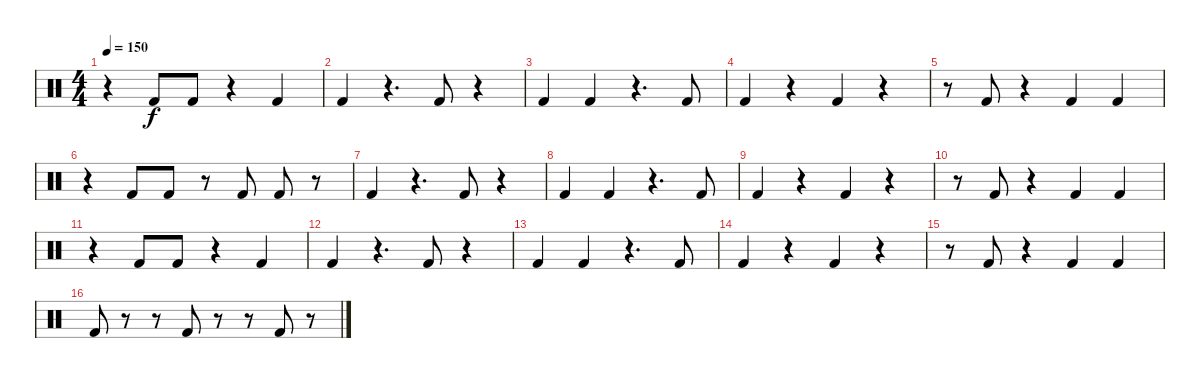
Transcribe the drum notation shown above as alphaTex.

\track "" {instrument percussion}
\staff {score}
\articulation defaults
\ts (4 4)
\tempo 150
\clef neutral
\ks c
r.4{dy f} "Kick (hit) 2".8 "Kick (hit) 2".8 r.4 "Kick (hit) 2".4 |
"Kick (hit) 2".4 r.4{d} "Kick (hit) 2".8 r.4 |
"Kick (hit) 2".4 "Kick (hit) 2".4 r.4{d} "Kick (hit) 2".8 |
"Kick (hit) 2".4 r.4 "Kick (hit) 2".4 r.4 |
r.8 "Kick (hit) 2".8 r.4 "Kick (hit) 2".4 "Kick (hit) 2".4 |
r.4 "Kick (hit) 2".8 "Kick (hit) 2".8 r.8 "Kick (hit) 2".8 "Kick (hit) 2".8 r.8 |
"Kick (hit) 2".4 r.4{d} "Kick (hit) 2".8 r.4 |
"Kick (hit) 2".4 "Kick (hit) 2".4 r.4{d} "Kick (hit) 2".8 |
"Kick (hit) 2".4 r.4 "Kick (hit) 2".4 r.4 |
r.8 "Kick (hit) 2".8 r.4 "Kick (hit) 2".4 "Kick (hit) 2".4 |
r.4 "Kick (hit) 2".8 "Kick (hit) 2".8 r.4 "Kick (hit) 2".4 |
"Kick (hit) 2".4 r.4{d} "Kick (hit) 2".8 r.4 |
"Kick (hit) 2".4 "Kick (hit) 2".4 r.4{d} "Kick (hit) 2".8 |
"Kick (hit) 2".4 r.4 "Kick (hit) 2".4 r.4 |
r.8 "Kick (hit) 2".8 r.4 "Kick (hit) 2".4 "Kick (hit) 2".4 |
"Kick (hit) 2".8 r.8 r.8 "Kick (hit) 2".8 r.8 r.8 "Kick (hit) 2".8 r.8
